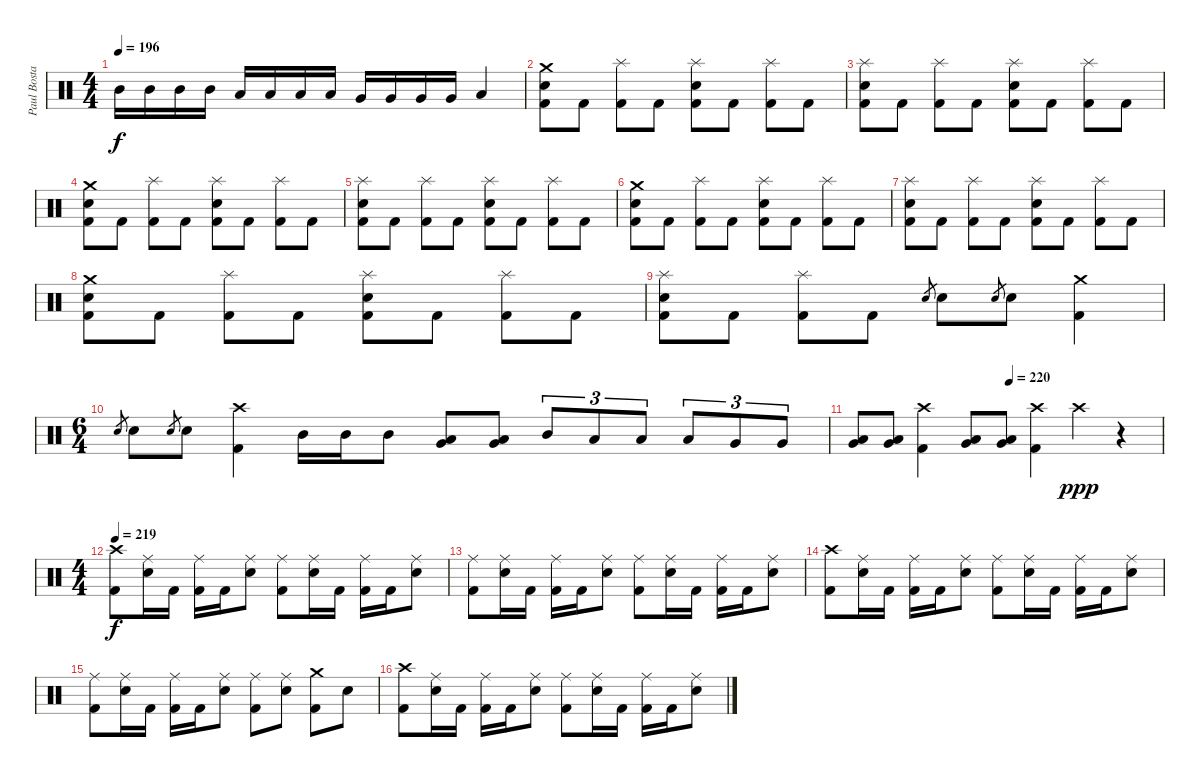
\track ("Paul Bostaph" "Paul Bosta") {instrument percussion}
\staff {score}
\articulation defaults
\ts (4 4)
\tempo 196
\clef neutral
\ks c "Mid Tom (hit)".16{dy f} "Mid Tom (hit)".16 "Mid Tom (hit)".16 "Mid Tom (hit)".16 "Low Tom (hit)".16 "Low Tom (hit)".16 "Low Tom (hit)".16 "Low Tom (hit)".16 "Very Low Tom (hit)".16 "Very Low Tom (hit)".16 "Very Low Tom (hit)".16 "Very Low Tom (hit)".16 "Low Floor Tom (hit)".4
|
("Kick (hit) 2" "Electric Snare (hit)" "Crash medium (hit)").8 "Kick (hit) 2".8 ("Kick (hit) 2" "Splash (hit)").8 "Kick (hit) 2".8 ("Kick (hit) 2" "Electric Snare (hit)" "Splash (hit)").8 "Kick (hit) 2".8 ("Kick (hit) 2" "Splash (hit)").8 "Kick (hit) 2".8 |
("Kick (hit) 2" "Electric Snare (hit)" "Splash (hit)").8 "Kick (hit) 2".8 ("Kick (hit) 2" "Splash (hit)").8 "Kick (hit) 2".8 ("Kick (hit) 2" "Electric Snare (hit)" "Splash (hit)").8 "Kick (hit) 2".8 ("Kick (hit) 2" "Splash (hit)").8 "Kick (hit) 2".8 |
("Kick (hit) 2" "Electric Snare (hit)" "Crash medium (hit)").8 "Kick (hit) 2".8 ("Kick (hit) 2" "Splash (hit)").8 "Kick (hit) 2".8 ("Kick (hit) 2" "Electric Snare (hit)" "Splash (hit)").8 "Kick (hit) 2".8 ("Kick (hit) 2" "Splash (hit)").8 "Kick (hit) 2".8 |
("Kick (hit) 2" "Electric Snare (hit)" "Splash (hit)").8 "Kick (hit) 2".8 ("Kick (hit) 2" "Splash (hit)").8 "Kick (hit) 2".8 ("Kick (hit) 2" "Electric Snare (hit)" "Splash (hit)").8 "Kick (hit) 2".8 ("Kick (hit) 2" "Splash (hit)").8 "Kick (hit) 2".8 |
("Kick (hit) 2" "Electric Snare (hit)" "Crash medium (hit)").8 "Kick (hit) 2".8 ("Kick (hit) 2" "Splash (hit)").8 "Kick (hit) 2".8 ("Kick (hit) 2" "Electric Snare (hit)" "Splash (hit)").8 "Kick (hit) 2".8 ("Kick (hit) 2" "Splash (hit)").8 "Kick (hit) 2".8 |
("Kick (hit) 2" "Electric Snare (hit)" "Splash (hit)").8 "Kick (hit) 2".8 ("Kick (hit) 2" "Splash (hit)").8 "Kick (hit) 2".8 ("Kick (hit) 2" "Electric Snare (hit)" "Splash (hit)").8 "Kick (hit) 2".8 ("Kick (hit) 2" "Splash (hit)").8 "Kick (hit) 2".8 |
("Kick (hit) 2" "Electric Snare (hit)" "Crash medium (hit)").8 "Kick (hit) 2".8 ("Kick (hit) 2" "Splash (hit)").8 "Kick (hit) 2".8 ("Kick (hit) 2" "Electric Snare (hit)" "Splash (hit)").8 "Kick (hit) 2".8 ("Kick (hit) 2" "Splash (hit)").8 "Kick (hit) 2".8 |
("Kick (hit) 2" "Electric Snare (hit)" "Splash (hit)").8 "Kick (hit) 2".8 ("Kick (hit) 2" "Splash (hit)").8 "Kick (hit) 2".8 "Electric Snare (hit)".8{gr} "Electric Snare (hit)".8 "Electric Snare (hit)".8{gr} "Electric Snare (hit)".8 ("Crash medium (hit)" "Kick (hit) 2").4 |
\ts (6 4)
"Electric Snare (hit)".8{gr} "Electric Snare (hit)".8 "Electric Snare (hit)".8{gr} "Electric Snare (hit)".8 ("Kick (hit) 2" "Crash high (hit)").4 "Mid Tom (hit)".16 "Mid Tom (hit)".16 "Mid Tom (hit)".8 ("Very Low Tom (hit)" "Low Tom (hit)").8 ("Low Tom (hit)" "Very Low Tom (hit)").8 "Mid Tom (hit)".8{tu (3 2)} "Low Tom (hit)".8{tu (3 2)} "Low Tom (hit)".8{tu (3 2)} "Low Tom (hit)".8{tu (3 2)} "Very Low Tom (hit)".8{tu (3 2)} "Very Low Tom (hit)".8{tu (3 2)} |
\tempo (220 0.5)
("Low Tom (hit)" "Very Low Tom (hit)").8 ("Low Tom (hit)" "Very Low Tom (hit)").8 ("Crash high (hit)" "Kick (hit) 2").4 ("Low Tom (hit)" "Very Low Tom (hit)").8 ("Low Tom (hit)" "Very Low Tom (hit)").8 ("Crash high (hit)" "Kick (hit) 2").4 "Crash high (hit)".4{dy ppp} r.4 |
\ts (4 4)
\tempo 219
("Crash high (hit)" "Kick (hit) 2").8{dy f} ("Ride (middle)" "Electric Snare (hit)").16 "Kick (hit) 2".16 ("Ride (middle)" "Kick (hit) 2").16 "Kick (hit) 2".16 ("Ride (middle)" "Electric Snare (hit)").8 ("Ride (middle)" "Kick (hit) 2").8 ("Ride (middle)" "Electric Snare (hit)").16 "Kick (hit) 2".16 ("Ride (middle)" "Kick (hit) 2").16 "Kick (hit) 2".16 ("Ride (middle)" "Electric Snare (hit)").8 |
("Ride (middle)" "Kick (hit) 2").8 ("Ride (middle)" "Electric Snare (hit)").16 "Kick (hit) 2".16 ("Ride (middle)" "Kick (hit) 2").16 "Kick (hit) 2".16 ("Ride (middle)" "Electric Snare (hit)").8 ("Ride (middle)" "Kick (hit) 2").8 ("Ride (middle)" "Electric Snare (hit)").16 "Kick (hit) 2".16 ("Ride (middle)" "Kick (hit) 2").16 "Kick (hit) 2".16 ("Ride (middle)" "Electric Snare (hit)").8 |
("Crash high (hit)" "Kick (hit) 2").8 ("Ride (middle)" "Electric Snare (hit)").16 "Kick (hit) 2".16 ("Ride (middle)" "Kick (hit) 2").16 "Kick (hit) 2".16 ("Ride (middle)" "Electric Snare (hit)").8 ("Ride (middle)" "Kick (hit) 2").8 ("Ride (middle)" "Electric Snare (hit)").16 "Kick (hit) 2".16 ("Ride (middle)" "Kick (hit) 2").16 "Kick (hit) 2".16 ("Ride (middle)" "Electric Snare (hit)").8 |
("Ride (middle)" "Kick (hit) 2").8 ("Ride (middle)" "Electric Snare (hit)").16 "Kick (hit) 2".16 ("Ride (middle)" "Kick (hit) 2").16 "Kick (hit) 2".16 ("Ride (middle)" "Electric Snare (hit)").8 ("Ride (middle)" "Kick (hit) 2").8 ("Ride (middle)" "Electric Snare (hit)").8 ("Crash medium (hit)" "Kick (hit) 2").8 "Electric Snare (hit)".8 |
("Crash high (hit)" "Kick (hit) 2").8 ("Ride (middle)" "Electric Snare (hit)").16 "Kick (hit) 2".16 ("Ride (middle)" "Kick (hit) 2").16 "Kick (hit) 2".16 ("Ride (middle)" "Electric Snare (hit)").8 ("Ride (middle)" "Kick (hit) 2").8 ("Ride (middle)" "Electric Snare (hit)").16 "Kick (hit) 2".16 ("Ride (middle)" "Kick (hit) 2").16 "Kick (hit) 2".16 ("Ride (middle)" "Electric Snare (hit)").8
